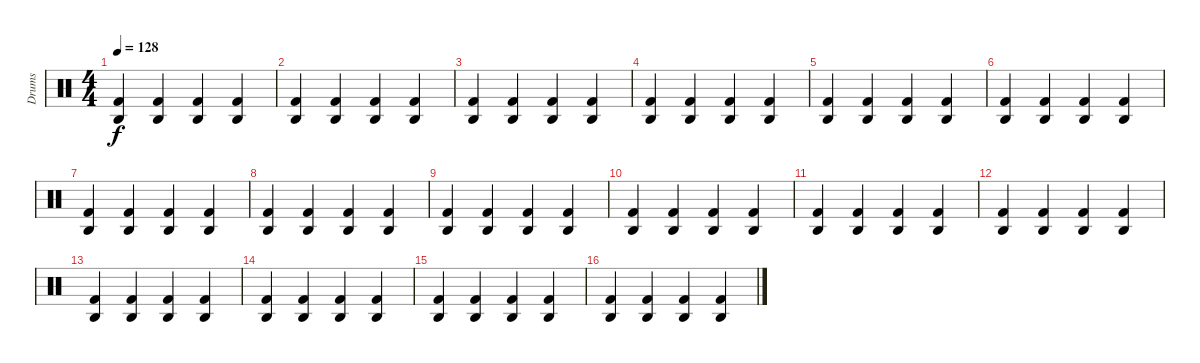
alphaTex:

\track ("Drums" "Drums") {instrument percussion}
\staff {score}
\articulation defaults
\ts (4 4)
\tempo 128
\clef neutral
\ks c
("Agogo high (hit)" "Kick (hit) 2").4{dy f} ("Agogo high (hit)" "Kick (hit) 2").4 ("Agogo high (hit)" "Kick (hit) 2").4 ("Agogo high (hit)" "Kick (hit) 2").4 |
("Agogo high (hit)" "Kick (hit) 2").4 ("Agogo high (hit)" "Kick (hit) 2").4 ("Agogo high (hit)" "Kick (hit) 2").4 ("Agogo high (hit)" "Kick (hit) 2").4 |
("Agogo high (hit)" "Kick (hit) 2").4 ("Agogo high (hit)" "Kick (hit) 2").4 ("Agogo high (hit)" "Kick (hit) 2").4 ("Agogo high (hit)" "Kick (hit) 2").4 |
("Agogo high (hit)" "Kick (hit) 2").4 ("Agogo high (hit)" "Kick (hit) 2").4 ("Agogo high (hit)" "Kick (hit) 2").4 ("Agogo high (hit)" "Kick (hit) 2").4 |
("Agogo high (hit)" "Kick (hit) 2").4 ("Agogo high (hit)" "Kick (hit) 2").4 ("Agogo high (hit)" "Kick (hit) 2").4 ("Agogo high (hit)" "Kick (hit) 2").4 |
("Agogo high (hit)" "Kick (hit) 2").4 ("Agogo high (hit)" "Kick (hit) 2").4 ("Agogo high (hit)" "Kick (hit) 2").4 ("Agogo high (hit)" "Kick (hit) 2").4 |
("Agogo high (hit)" "Kick (hit) 2").4 ("Agogo high (hit)" "Kick (hit) 2").4 ("Agogo high (hit)" "Kick (hit) 2").4 ("Agogo high (hit)" "Kick (hit) 2").4 |
("Agogo high (hit)" "Kick (hit) 2").4 ("Agogo high (hit)" "Kick (hit) 2").4 ("Agogo high (hit)" "Kick (hit) 2").4 ("Agogo high (hit)" "Kick (hit) 2").4 |
("Agogo high (hit)" "Kick (hit) 2").4 ("Agogo high (hit)" "Kick (hit) 2").4 ("Agogo high (hit)" "Kick (hit) 2").4 ("Agogo high (hit)" "Kick (hit) 2").4 |
("Agogo high (hit)" "Kick (hit) 2").4 ("Agogo high (hit)" "Kick (hit) 2").4 ("Agogo high (hit)" "Kick (hit) 2").4 ("Agogo high (hit)" "Kick (hit) 2").4 |
("Agogo high (hit)" "Kick (hit) 2").4 ("Agogo high (hit)" "Kick (hit) 2").4 ("Agogo high (hit)" "Kick (hit) 2").4 ("Agogo high (hit)" "Kick (hit) 2").4 |
("Agogo high (hit)" "Kick (hit) 2").4 ("Agogo high (hit)" "Kick (hit) 2").4 ("Agogo high (hit)" "Kick (hit) 2").4 ("Agogo high (hit)" "Kick (hit) 2").4 |
("Agogo high (hit)" "Kick (hit) 2").4 ("Agogo high (hit)" "Kick (hit) 2").4 ("Agogo high (hit)" "Kick (hit) 2").4 ("Agogo high (hit)" "Kick (hit) 2").4 |
("Agogo high (hit)" "Kick (hit) 2").4 ("Agogo high (hit)" "Kick (hit) 2").4 ("Agogo high (hit)" "Kick (hit) 2").4 ("Agogo high (hit)" "Kick (hit) 2").4 |
("Agogo high (hit)" "Kick (hit) 2").4 ("Agogo high (hit)" "Kick (hit) 2").4 ("Agogo high (hit)" "Kick (hit) 2").4 ("Agogo high (hit)" "Kick (hit) 2").4 |
("Agogo high (hit)" "Kick (hit) 2").4 ("Agogo high (hit)" "Kick (hit) 2").4 ("Agogo high (hit)" "Kick (hit) 2").4 ("Agogo high (hit)" "Kick (hit) 2").4
